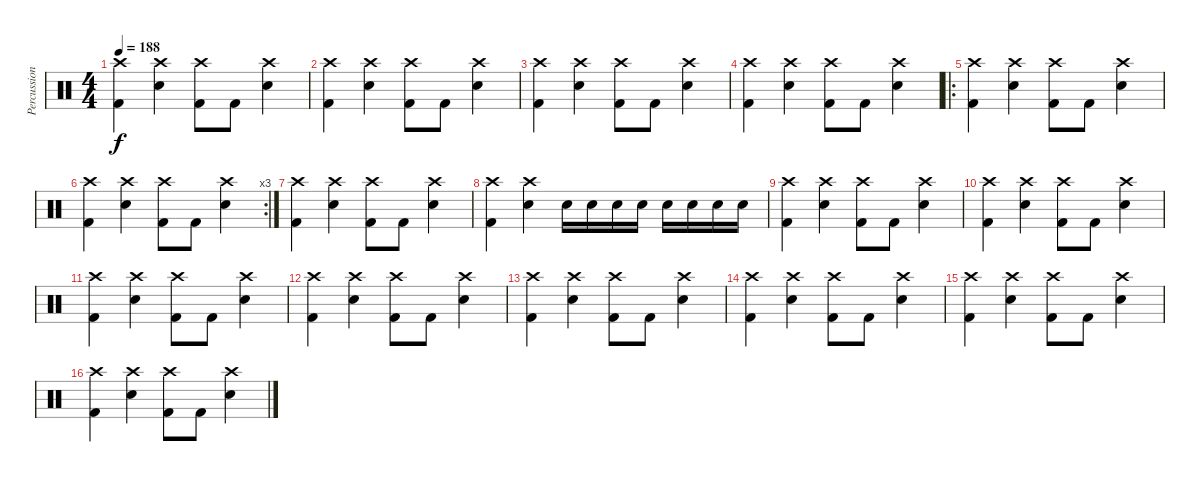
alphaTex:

\track ("Percussions" "Percussion") {instrument percussion}
\staff {score}
\articulation defaults
\ts (4 4)
\tempo 188
\clef neutral
\ks c
("Kick (hit) 2" "Crash high (hit)").4{dy f} ("Electric Snare (hit)" "Crash high (hit)").4 ("Kick (hit) 2" "Crash high (hit)").8 "Kick (hit) 2".8 ("Electric Snare (hit)" "Crash high (hit)").4 |
("Kick (hit) 2" "Crash high (hit)").4 ("Electric Snare (hit)" "Crash high (hit)").4 ("Kick (hit) 2" "Crash high (hit)").8 "Kick (hit) 2".8 ("Electric Snare (hit)" "Crash high (hit)").4 |
("Kick (hit) 2" "Crash high (hit)").4 ("Electric Snare (hit)" "Crash high (hit)").4 ("Kick (hit) 2" "Crash high (hit)").8 "Kick (hit) 2".8 ("Electric Snare (hit)" "Crash high (hit)").4 |
("Kick (hit) 2" "Crash high (hit)").4 ("Electric Snare (hit)" "Crash high (hit)").4 ("Kick (hit) 2" "Crash high (hit)").8 "Kick (hit) 2".8 ("Electric Snare (hit)" "Crash high (hit)").4 |
\ro
("Kick (hit) 2" "Crash high (hit)").4 ("Electric Snare (hit)" "Crash high (hit)").4 ("Kick (hit) 2" "Crash high (hit)").8 "Kick (hit) 2".8 ("Electric Snare (hit)" "Crash high (hit)").4 |
\rc 3
("Kick (hit) 2" "Crash high (hit)").4 ("Electric Snare (hit)" "Crash high (hit)").4 ("Kick (hit) 2" "Crash high (hit)").8 "Kick (hit) 2".8 ("Electric Snare (hit)" "Crash high (hit)").4 |
("Kick (hit) 2" "Crash high (hit)").4 ("Electric Snare (hit)" "Crash high (hit)").4 ("Kick (hit) 2" "Crash high (hit)").8 "Kick (hit) 2".8 ("Electric Snare (hit)" "Crash high (hit)").4 |
("Kick (hit) 2" "Crash high (hit)").4 ("Electric Snare (hit)" "Crash high (hit)").4 "Electric Snare (hit)".16 "Electric Snare (hit)".16 "Electric Snare (hit)".16 "Electric Snare (hit)".16 "Electric Snare (hit)".16 "Electric Snare (hit)".16 "Electric Snare (hit)".16 "Electric Snare (hit)".16 |
("Kick (hit) 2" "Crash high (hit)").4 ("Electric Snare (hit)" "Crash high (hit)").4 ("Kick (hit) 2" "Crash high (hit)").8 "Kick (hit) 2".8 ("Electric Snare (hit)" "Crash high (hit)").4 |
("Kick (hit) 2" "Crash high (hit)").4 ("Electric Snare (hit)" "Crash high (hit)").4 ("Kick (hit) 2" "Crash high (hit)").8 "Kick (hit) 2".8 ("Electric Snare (hit)" "Crash high (hit)").4 |
("Kick (hit) 2" "Crash high (hit)").4 ("Electric Snare (hit)" "Crash high (hit)").4 ("Kick (hit) 2" "Crash high (hit)").8 "Kick (hit) 2".8 ("Electric Snare (hit)" "Crash high (hit)").4 |
("Kick (hit) 2" "Crash high (hit)").4 ("Electric Snare (hit)" "Crash high (hit)").4 ("Kick (hit) 2" "Crash high (hit)").8 "Kick (hit) 2".8 ("Electric Snare (hit)" "Crash high (hit)").4 |
("Kick (hit) 2" "Crash high (hit)").4 ("Electric Snare (hit)" "Crash high (hit)").4 ("Kick (hit) 2" "Crash high (hit)").8 "Kick (hit) 2".8 ("Electric Snare (hit)" "Crash high (hit)").4 |
("Kick (hit) 2" "Crash high (hit)").4 ("Electric Snare (hit)" "Crash high (hit)").4 ("Kick (hit) 2" "Crash high (hit)").8 "Kick (hit) 2".8 ("Electric Snare (hit)" "Crash high (hit)").4 |
("Kick (hit) 2" "Crash high (hit)").4 ("Electric Snare (hit)" "Crash high (hit)").4 ("Kick (hit) 2" "Crash high (hit)").8 "Kick (hit) 2".8 ("Electric Snare (hit)" "Crash high (hit)").4 |
("Kick (hit) 2" "Crash high (hit)").4 ("Electric Snare (hit)" "Crash high (hit)").4 ("Kick (hit) 2" "Crash high (hit)").8 "Kick (hit) 2".8 ("Electric Snare (hit)" "Crash high (hit)").4
